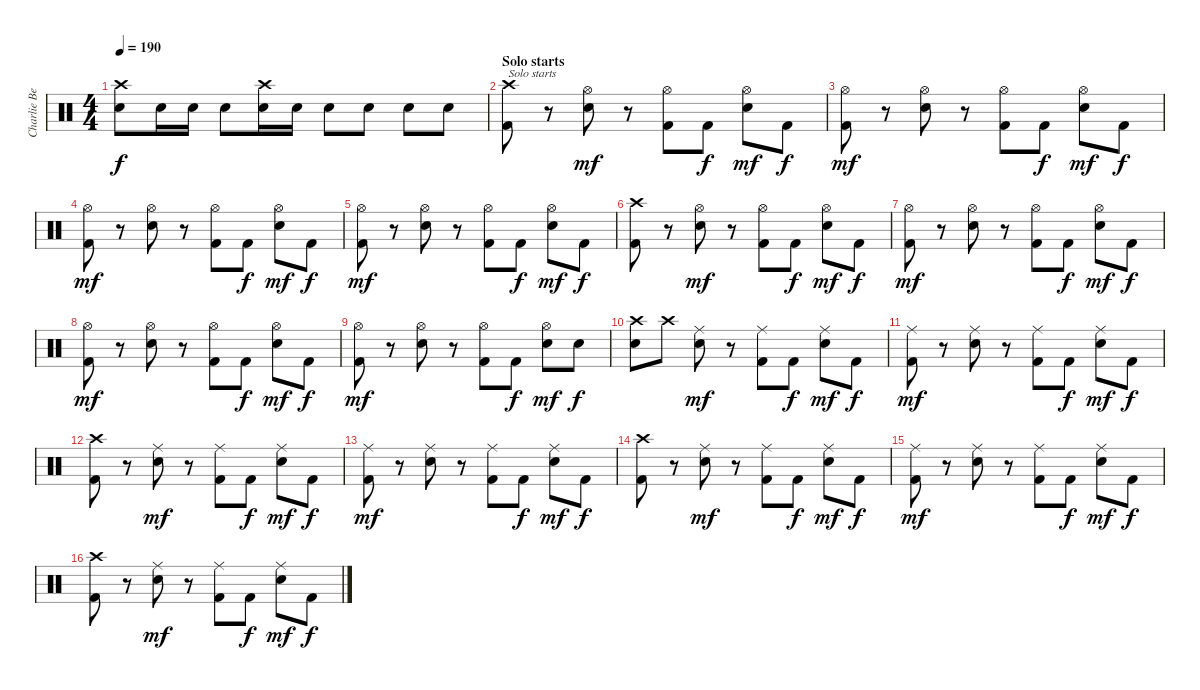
\track ("Charlie Benante" "Charlie Be") {instrument percussion}
\staff {score}
\articulation defaults
\ts (4 4)
\tempo 190
\clef neutral
\ks c
("Crash high (hit)" "Electric Snare (hit)").8{dy f} "Electric Snare (hit)".16 "Electric Snare (hit)".16 "Electric Snare (hit)".8 ("Crash high (hit)" "Electric Snare (hit)").16 "Electric Snare (hit)".16 "Electric Snare (hit)".8 "Electric Snare (hit)".8 "Electric Snare (hit)".8 "Electric Snare (hit)".8 |
\section ("" "Solo starts")
("Crash high (hit)" "Kick (hit) 2").8{txt "Solo starts"} r.8 ("Hi-Hat (open)" "Electric Snare (hit)").8{dy mf} r.8 ("Hi-Hat (open)" "Kick (hit) 2").8 "Kick (hit) 2".8{dy f} ("Hi-Hat (open)" "Electric Snare (hit)").8{dy mf} "Kick (hit) 2".8{dy f} |
("Hi-Hat (open)" "Kick (hit) 2").8{dy mf} r.8 ("Hi-Hat (open)" "Electric Snare (hit)").8 r.8 ("Hi-Hat (open)" "Kick (hit) 2").8 "Kick (hit) 2".8{dy f} ("Hi-Hat (open)" "Electric Snare (hit)").8{dy mf} "Kick (hit) 2".8{dy f} |
("Hi-Hat (open)" "Kick (hit) 2").8{dy mf} r.8 ("Hi-Hat (open)" "Electric Snare (hit)").8 r.8 ("Hi-Hat (open)" "Kick (hit) 2").8 "Kick (hit) 2".8{dy f} ("Hi-Hat (open)" "Electric Snare (hit)").8{dy mf} "Kick (hit) 2".8{dy f} |
("Hi-Hat (open)" "Kick (hit) 2").8{dy mf} r.8 ("Hi-Hat (open)" "Electric Snare (hit)").8 r.8 ("Hi-Hat (open)" "Kick (hit) 2").8 "Kick (hit) 2".8{dy f} ("Hi-Hat (open)" "Electric Snare (hit)").8{dy mf} "Kick (hit) 2".8{dy f} |
("Crash high (hit)" "Kick (hit) 2").8 r.8 ("Hi-Hat (open)" "Electric Snare (hit)").8{dy mf} r.8 ("Hi-Hat (open)" "Kick (hit) 2").8 "Kick (hit) 2".8{dy f} ("Hi-Hat (open)" "Electric Snare (hit)").8{dy mf} "Kick (hit) 2".8{dy f} |
("Hi-Hat (open)" "Kick (hit) 2").8{dy mf} r.8 ("Hi-Hat (open)" "Electric Snare (hit)").8 r.8 ("Hi-Hat (open)" "Kick (hit) 2").8 "Kick (hit) 2".8{dy f} ("Hi-Hat (open)" "Electric Snare (hit)").8{dy mf} "Kick (hit) 2".8{dy f} |
("Hi-Hat (open)" "Kick (hit) 2").8{dy mf} r.8 ("Hi-Hat (open)" "Electric Snare (hit)").8 r.8 ("Hi-Hat (open)" "Kick (hit) 2").8 "Kick (hit) 2".8{dy f} ("Hi-Hat (open)" "Electric Snare (hit)").8{dy mf} "Kick (hit) 2".8{dy f} |
("Hi-Hat (open)" "Kick (hit) 2").8{dy mf} r.8 ("Hi-Hat (open)" "Electric Snare (hit)").8 r.8 ("Hi-Hat (open)" "Kick (hit) 2").8 "Kick (hit) 2".8{dy f} ("Hi-Hat (open)" "Electric Snare (hit)").8{dy mf} "Electric Snare (hit)".8{dy f} |
("Crash high (hit)" "Electric Snare (hit)").8 "Crash high (hit)".8 ("Ride (middle)" "Electric Snare (hit)").8{dy mf} r.8 ("Ride (middle)" "Kick (hit) 2").8 "Kick (hit) 2".8{dy f} ("Ride (middle)" "Electric Snare (hit)").8{dy mf} "Kick (hit) 2".8{dy f} |
("Ride (middle)" "Kick (hit) 2").8{dy mf} r.8 ("Ride (middle)" "Electric Snare (hit)").8 r.8 ("Ride (middle)" "Kick (hit) 2").8 "Kick (hit) 2".8{dy f} ("Ride (middle)" "Electric Snare (hit)").8{dy mf} "Kick (hit) 2".8{dy f} |
("Crash high (hit)" "Kick (hit) 2").8 r.8 ("Ride (middle)" "Electric Snare (hit)").8{dy mf} r.8 ("Ride (middle)" "Kick (hit) 2").8 "Kick (hit) 2".8{dy f} ("Ride (middle)" "Electric Snare (hit)").8{dy mf} "Kick (hit) 2".8{dy f} |
("Ride (middle)" "Kick (hit) 2").8{dy mf} r.8 ("Ride (middle)" "Electric Snare (hit)").8 r.8 ("Ride (middle)" "Kick (hit) 2").8 "Kick (hit) 2".8{dy f} ("Ride (middle)" "Electric Snare (hit)").8{dy mf} "Kick (hit) 2".8{dy f} |
("Crash high (hit)" "Kick (hit) 2").8 r.8 ("Ride (middle)" "Electric Snare (hit)").8{dy mf} r.8 ("Ride (middle)" "Kick (hit) 2").8 "Kick (hit) 2".8{dy f} ("Ride (middle)" "Electric Snare (hit)").8{dy mf} "Kick (hit) 2".8{dy f} |
("Ride (middle)" "Kick (hit) 2").8{dy mf} r.8 ("Ride (middle)" "Electric Snare (hit)").8 r.8 ("Ride (middle)" "Kick (hit) 2").8 "Kick (hit) 2".8{dy f} ("Ride (middle)" "Electric Snare (hit)").8{dy mf} "Kick (hit) 2".8{dy f} |
("Crash high (hit)" "Kick (hit) 2").8 r.8 ("Ride (middle)" "Electric Snare (hit)").8{dy mf} r.8 ("Ride (middle)" "Kick (hit) 2").8 "Kick (hit) 2".8{dy f} ("Ride (middle)" "Electric Snare (hit)").8{dy mf} "Kick (hit) 2".8{dy f}
